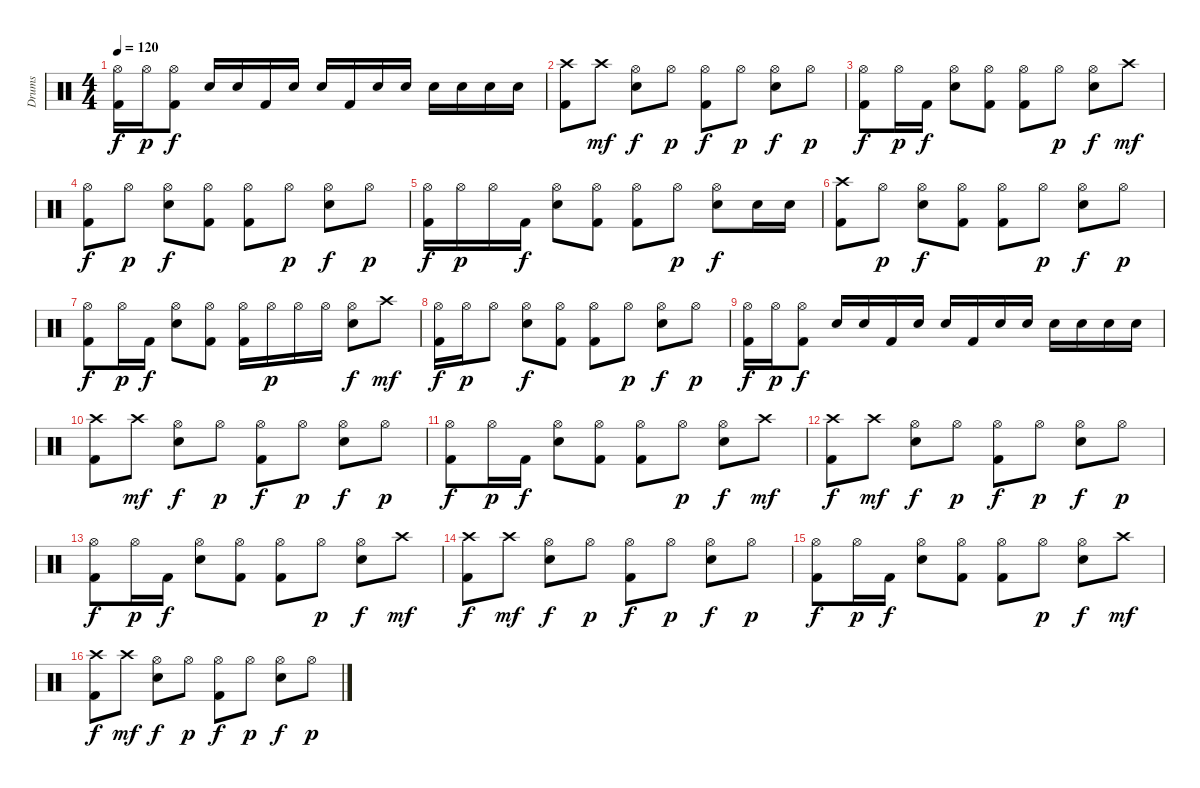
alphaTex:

\track ("Drums" "Drums") {instrument percussion}
\staff {score}
\articulation defaults
\ts (4 4)
\tempo 120
\clef neutral
\ks c
("Hi-Hat (open)" "Kick (hit) 2").16{dy f} "Hi-Hat (open)".16{dy p} ("Hi-Hat (open)" "Kick (hit) 2").8{dy f} "Electric Snare (hit)".16 "Electric Snare (hit)".16 "Kick (hit) 2".16 "Electric Snare (hit)".16 "Electric Snare (hit)".16 "Kick (hit) 2".16 "Electric Snare (hit)".16 "Electric Snare (hit)".16 "Electric Snare (hit)".16 "Electric Snare (hit)".16 "Electric Snare (hit)".16 "Electric Snare (hit)".16 |
("Crash high (hit)" "Kick (hit) 2").8 "Crash high (hit)".8{dy mf} ("Hi-Hat (open)" "Electric Snare (hit)").8{dy f} "Hi-Hat (open)".8{dy p} ("Hi-Hat (open)" "Kick (hit) 2").8{dy f} "Hi-Hat (open)".8{dy p} ("Hi-Hat (open)" "Electric Snare (hit)").8{dy f} "Hi-Hat (open)".8{dy p} |
("Hi-Hat (open)" "Kick (hit) 2").8{dy f} "Hi-Hat (open)".16{dy p} "Kick (hit) 2".16{dy f} ("Hi-Hat (open)" "Electric Snare (hit)").8 ("Hi-Hat (open)" "Kick (hit) 2").8 ("Hi-Hat (open)" "Kick (hit) 2").8 "Hi-Hat (open)".8{dy p} ("Hi-Hat (open)" "Electric Snare (hit)").8{dy f} "Crash high (hit)".8{dy mf} |
("Hi-Hat (open)" "Kick (hit) 2").8{dy f} "Hi-Hat (open)".8{dy p} ("Hi-Hat (open)" "Electric Snare (hit)").8{dy f} ("Hi-Hat (open)" "Kick (hit) 2").8 ("Hi-Hat (open)" "Kick (hit) 2").8 "Hi-Hat (open)".8{dy p} ("Hi-Hat (open)" "Electric Snare (hit)").8{dy f} "Hi-Hat (open)".8{dy p} |
("Hi-Hat (open)" "Kick (hit) 2").16{dy f} "Hi-Hat (open)".16{dy p} "Hi-Hat (open)".16 "Kick (hit) 2".16{dy f} ("Hi-Hat (open)" "Electric Snare (hit)").8 ("Hi-Hat (open)" "Kick (hit) 2").8 ("Hi-Hat (open)" "Kick (hit) 2").8 "Hi-Hat (open)".8{dy p} ("Hi-Hat (open)" "Electric Snare (hit)").8{dy f} "Electric Snare (hit)".16 "Electric Snare (hit)".16 |
("Crash high (hit)" "Kick (hit) 2").8 "Hi-Hat (open)".8{dy p} ("Hi-Hat (open)" "Electric Snare (hit)").8{dy f} ("Hi-Hat (open)" "Kick (hit) 2").8 ("Hi-Hat (open)" "Kick (hit) 2").8 "Hi-Hat (open)".8{dy p} ("Hi-Hat (open)" "Electric Snare (hit)").8{dy f} "Hi-Hat (open)".8{dy p} |
("Hi-Hat (open)" "Kick (hit) 2").8{dy f} "Hi-Hat (open)".16{dy p} "Kick (hit) 2".16{dy f} ("Hi-Hat (open)" "Electric Snare (hit)").8 ("Hi-Hat (open)" "Kick (hit) 2").8 ("Hi-Hat (open)" "Kick (hit) 2").16 "Hi-Hat (open)".16{dy p} "Hi-Hat (open)".16 "Hi-Hat (open)".16 ("Hi-Hat (open)" "Electric Snare (hit)").8{dy f} "Crash high (hit)".8{dy mf} |
("Hi-Hat (open)" "Kick (hit) 2").16{dy f} "Hi-Hat (open)".16{dy p} "Hi-Hat (open)".8 ("Hi-Hat (open)" "Electric Snare (hit)").8{dy f} ("Hi-Hat (open)" "Kick (hit) 2").8 ("Hi-Hat (open)" "Kick (hit) 2").8 "Hi-Hat (open)".8{dy p} ("Hi-Hat (open)" "Electric Snare (hit)").8{dy f} "Hi-Hat (open)".8{dy p} |
("Hi-Hat (open)" "Kick (hit) 2").16{dy f} "Hi-Hat (open)".16{dy p} ("Hi-Hat (open)" "Kick (hit) 2").8{dy f} "Electric Snare (hit)".16 "Electric Snare (hit)".16 "Kick (hit) 2".16 "Electric Snare (hit)".16 "Electric Snare (hit)".16 "Kick (hit) 2".16 "Electric Snare (hit)".16 "Electric Snare (hit)".16 "Electric Snare (hit)".16 "Electric Snare (hit)".16 "Electric Snare (hit)".16 "Electric Snare (hit)".16 |
("Crash high (hit)" "Kick (hit) 2").8 "Crash high (hit)".8{dy mf} ("Hi-Hat (open)" "Electric Snare (hit)").8{dy f} "Hi-Hat (open)".8{dy p} ("Hi-Hat (open)" "Kick (hit) 2").8{dy f} "Hi-Hat (open)".8{dy p} ("Hi-Hat (open)" "Electric Snare (hit)").8{dy f} "Hi-Hat (open)".8{dy p} |
("Hi-Hat (open)" "Kick (hit) 2").8{dy f} "Hi-Hat (open)".16{dy p} "Kick (hit) 2".16{dy f} ("Hi-Hat (open)" "Electric Snare (hit)").8 ("Hi-Hat (open)" "Kick (hit) 2").8 ("Hi-Hat (open)" "Kick (hit) 2").8 "Hi-Hat (open)".8{dy p} ("Hi-Hat (open)" "Electric Snare (hit)").8{dy f} "Crash high (hit)".8{dy mf} |
("Crash high (hit)" "Kick (hit) 2").8{dy f} "Crash high (hit)".8{dy mf} ("Hi-Hat (open)" "Electric Snare (hit)").8{dy f} "Hi-Hat (open)".8{dy p} ("Hi-Hat (open)" "Kick (hit) 2").8{dy f} "Hi-Hat (open)".8{dy p} ("Hi-Hat (open)" "Electric Snare (hit)").8{dy f} "Hi-Hat (open)".8{dy p} |
("Hi-Hat (open)" "Kick (hit) 2").8{dy f} "Hi-Hat (open)".16{dy p} "Kick (hit) 2".16{dy f} ("Hi-Hat (open)" "Electric Snare (hit)").8 ("Hi-Hat (open)" "Kick (hit) 2").8 ("Hi-Hat (open)" "Kick (hit) 2").8 "Hi-Hat (open)".8{dy p} ("Hi-Hat (open)" "Electric Snare (hit)").8{dy f} "Crash high (hit)".8{dy mf volume 0} |
("Crash high (hit)" "Kick (hit) 2").8{dy f} "Crash high (hit)".8{dy mf} ("Hi-Hat (open)" "Electric Snare (hit)").8{dy f} "Hi-Hat (open)".8{dy p} ("Hi-Hat (open)" "Kick (hit) 2").8{dy f} "Hi-Hat (open)".8{dy p} ("Hi-Hat (open)" "Electric Snare (hit)").8{dy f} "Hi-Hat (open)".8{dy p} |
("Hi-Hat (open)" "Kick (hit) 2").8{dy f} "Hi-Hat (open)".16{dy p} "Kick (hit) 2".16{dy f} ("Hi-Hat (open)" "Electric Snare (hit)").8 ("Hi-Hat (open)" "Kick (hit) 2").8 ("Hi-Hat (open)" "Kick (hit) 2").8 "Hi-Hat (open)".8{dy p} ("Hi-Hat (open)" "Electric Snare (hit)").8{dy f} "Crash high (hit)".8{dy mf} |
("Crash high (hit)" "Kick (hit) 2").8{dy f} "Crash high (hit)".8{dy mf} ("Hi-Hat (open)" "Electric Snare (hit)").8{dy f} "Hi-Hat (open)".8{dy p} ("Hi-Hat (open)" "Kick (hit) 2").8{dy f} "Hi-Hat (open)".8{dy p} ("Hi-Hat (open)" "Electric Snare (hit)").8{dy f} "Hi-Hat (open)".8{dy p}
